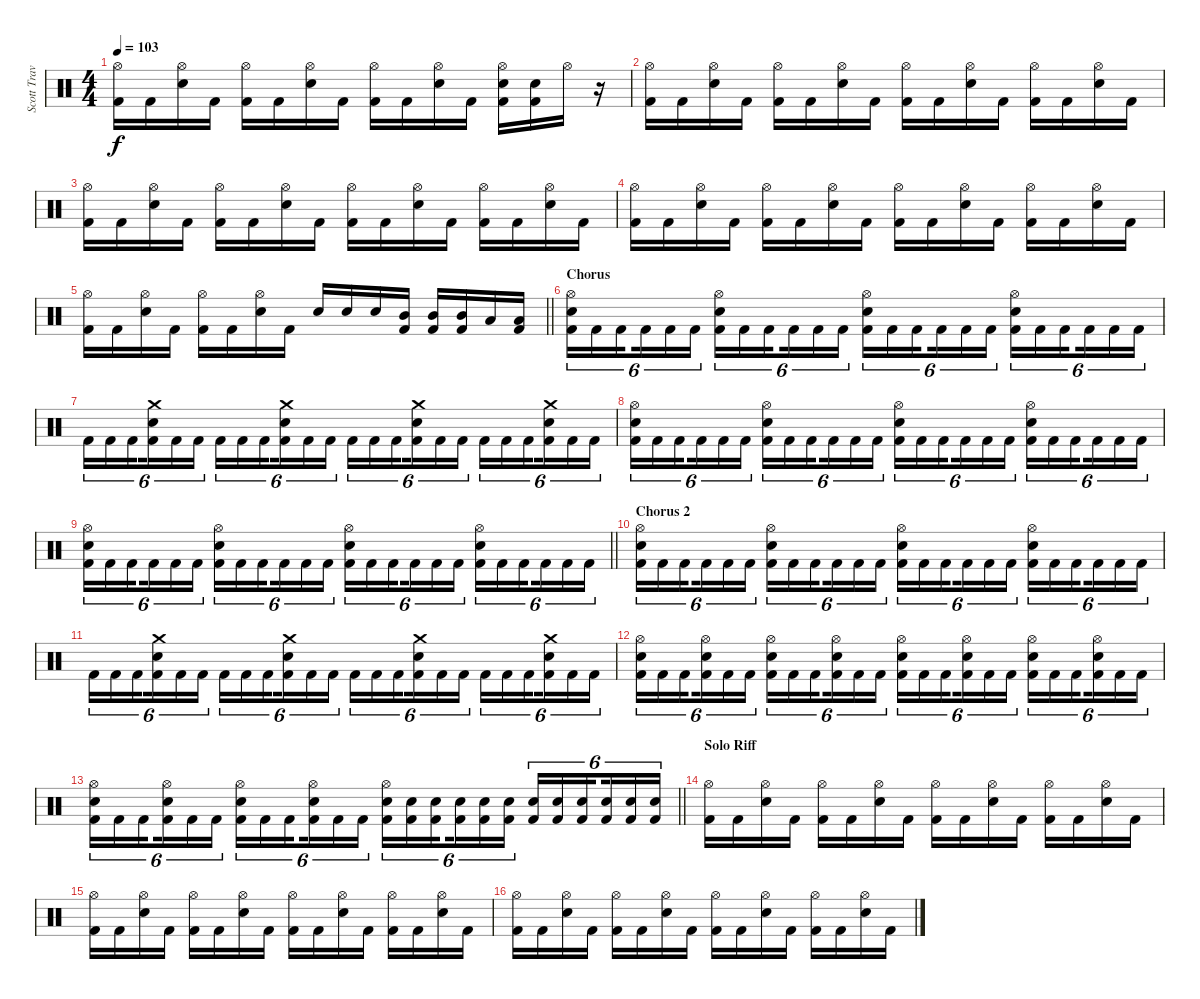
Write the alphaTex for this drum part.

\track ("Scott Travis" "Scott Trav") {instrument percussion}
\staff {score}
\articulation defaults
\ts (4 4)
\tempo 103
\clef neutral
\ks c
("Hi-Hat (open)" "Kick (hit) 2").16{dy f} "Kick (hit) 2".16 ("Hi-Hat (open)" "Snare (hit) 2").16 "Kick (hit) 2".16 ("Hi-Hat (open)" "Kick (hit) 2").16 "Kick (hit) 2".16 ("Hi-Hat (open)" "Snare (hit) 2").16 "Kick (hit) 2".16 ("Hi-Hat (open)" "Kick (hit) 2").16 "Kick (hit) 2".16 ("Hi-Hat (open)" "Snare (hit) 2").16 "Kick (hit) 2".16 ("Hi-Hat (open)" "Snare (hit) 2" "Kick (hit) 2").16 ("Snare (hit) 2" "Kick (hit) 2").16 "Hi-Hat (open)".16 r.16 |
("Hi-Hat (open)" "Kick (hit) 2").16 "Kick (hit) 2".16 ("Hi-Hat (open)" "Snare (hit) 2").16 "Kick (hit) 2".16 ("Hi-Hat (open)" "Kick (hit) 2").16 "Kick (hit) 2".16 ("Hi-Hat (open)" "Snare (hit) 2").16 "Kick (hit) 2".16 ("Hi-Hat (open)" "Kick (hit) 2").16 "Kick (hit) 2".16 ("Hi-Hat (open)" "Snare (hit) 2").16 "Kick (hit) 2".16 ("Hi-Hat (open)" "Kick (hit) 2").16 "Kick (hit) 2".16 ("Hi-Hat (open)" "Snare (hit) 2").16 "Kick (hit) 2".16 |
("Hi-Hat (open)" "Kick (hit) 2").16 "Kick (hit) 2".16 ("Hi-Hat (open)" "Snare (hit) 2").16 "Kick (hit) 2".16 ("Hi-Hat (open)" "Kick (hit) 2").16 "Kick (hit) 2".16 ("Hi-Hat (open)" "Snare (hit) 2").16 "Kick (hit) 2".16 ("Hi-Hat (open)" "Kick (hit) 2").16 "Kick (hit) 2".16 ("Hi-Hat (open)" "Snare (hit) 2").16 "Kick (hit) 2".16 ("Hi-Hat (open)" "Kick (hit) 2").16 "Kick (hit) 2".16 ("Hi-Hat (open)" "Snare (hit) 2").16 "Kick (hit) 2".16 |
("Hi-Hat (open)" "Kick (hit) 2").16 "Kick (hit) 2".16 ("Hi-Hat (open)" "Snare (hit) 2").16 "Kick (hit) 2".16 ("Hi-Hat (open)" "Kick (hit) 2").16 "Kick (hit) 2".16 ("Hi-Hat (open)" "Snare (hit) 2").16 "Kick (hit) 2".16 ("Hi-Hat (open)" "Kick (hit) 2").16 "Kick (hit) 2".16 ("Hi-Hat (open)" "Snare (hit) 2").16 "Kick (hit) 2".16 ("Hi-Hat (open)" "Kick (hit) 2").16 "Kick (hit) 2".16 ("Hi-Hat (open)" "Snare (hit) 2").16 "Kick (hit) 2".16 |
\barLineRight lightlight
("Hi-Hat (open)" "Kick (hit) 2").16 "Kick (hit) 2".16 ("Hi-Hat (open)" "Snare (hit) 2").16 "Kick (hit) 2".16 ("Hi-Hat (open)" "Kick (hit) 2").16 "Kick (hit) 2".16 ("Hi-Hat (open)" "Snare (hit) 2").16 "Kick (hit) 2".16 "Snare (hit) 2".16 "Snare (hit) 2".16 "Snare (hit) 2".16 ("Mid Tom (hit)" "Kick (hit) 2").16 ("Mid Tom (hit)" "Kick (hit) 2").16 ("Mid Tom (hit)" "Kick (hit) 2").16 "Low Tom (hit)".16 ("Low Tom (hit)" "Kick (hit) 2").16 |
\section ("" "Chorus")
("Hi-Hat (open)" "Snare (hit) 2" "Kick (hit) 2").16{tu (6 4)} "Kick (hit) 2".16{tu (6 4)} "Kick (hit) 2".16{tu (6 4) beam splitsecondary} "Kick (hit) 2".16{tu (6 4)} "Kick (hit) 2".16{tu (6 4)} "Kick (hit) 2".16{tu (6 4)} ("Hi-Hat (open)" "Snare (hit) 2" "Kick (hit) 2").16{tu (6 4)} "Kick (hit) 2".16{tu (6 4)} "Kick (hit) 2".16{tu (6 4) beam splitsecondary} "Kick (hit) 2".16{tu (6 4)} "Kick (hit) 2".16{tu (6 4)} "Kick (hit) 2".16{tu (6 4)} ("Hi-Hat (open)" "Snare (hit) 2" "Kick (hit) 2").16{tu (6 4)} "Kick (hit) 2".16{tu (6 4)} "Kick (hit) 2".16{tu (6 4) beam splitsecondary} "Kick (hit) 2".16{tu (6 4)} "Kick (hit) 2".16{tu (6 4)} "Kick (hit) 2".16{tu (6 4)} ("Hi-Hat (open)" "Snare (hit) 2" "Kick (hit) 2").16{tu (6 4)} "Kick (hit) 2".16{tu (6 4)} "Kick (hit) 2".16{tu (6 4) beam splitsecondary} "Kick (hit) 2".16{tu (6 4)} "Kick (hit) 2".16{tu (6 4)} "Kick (hit) 2".16{tu (6 4)} |
"Kick (hit) 2".16{tu (6 4)} "Kick (hit) 2".16{tu (6 4)} "Kick (hit) 2".16{tu (6 4) beam splitsecondary} ("Crash medium (hit)" "Snare (hit) 2" "Kick (hit) 2").16{tu (6 4)} "Kick (hit) 2".16{tu (6 4)} "Kick (hit) 2".16{tu (6 4)} "Kick (hit) 2".16{tu (6 4)} "Kick (hit) 2".16{tu (6 4)} "Kick (hit) 2".16{tu (6 4) beam splitsecondary} ("Crash medium (hit)" "Snare (hit) 2" "Kick (hit) 2").16{tu (6 4)} "Kick (hit) 2".16{tu (6 4)} "Kick (hit) 2".16{tu (6 4)} "Kick (hit) 2".16{tu (6 4)} "Kick (hit) 2".16{tu (6 4)} "Kick (hit) 2".16{tu (6 4) beam splitsecondary} ("Crash medium (hit)" "Snare (hit) 2" "Kick (hit) 2").16{tu (6 4)} "Kick (hit) 2".16{tu (6 4)} "Kick (hit) 2".16{tu (6 4)} "Kick (hit) 2".16{tu (6 4)} "Kick (hit) 2".16{tu (6 4)} "Kick (hit) 2".16{tu (6 4) beam splitsecondary} ("Snare (hit) 2" "Crash medium (hit)" "Kick (hit) 2").16{tu (6 4)} "Kick (hit) 2".16{tu (6 4)} "Kick (hit) 2".16{tu (6 4)} |
("Hi-Hat (open)" "Snare (hit) 2" "Kick (hit) 2").16{tu (6 4)} "Kick (hit) 2".16{tu (6 4)} "Kick (hit) 2".16{tu (6 4) beam splitsecondary} "Kick (hit) 2".16{tu (6 4)} "Kick (hit) 2".16{tu (6 4)} "Kick (hit) 2".16{tu (6 4)} ("Hi-Hat (open)" "Snare (hit) 2" "Kick (hit) 2").16{tu (6 4)} "Kick (hit) 2".16{tu (6 4)} "Kick (hit) 2".16{tu (6 4) beam splitsecondary} "Kick (hit) 2".16{tu (6 4)} "Kick (hit) 2".16{tu (6 4)} "Kick (hit) 2".16{tu (6 4)} ("Hi-Hat (open)" "Snare (hit) 2" "Kick (hit) 2").16{tu (6 4)} "Kick (hit) 2".16{tu (6 4)} "Kick (hit) 2".16{tu (6 4) beam splitsecondary} "Kick (hit) 2".16{tu (6 4)} "Kick (hit) 2".16{tu (6 4)} "Kick (hit) 2".16{tu (6 4)} ("Hi-Hat (open)" "Snare (hit) 2" "Kick (hit) 2").16{tu (6 4)} "Kick (hit) 2".16{tu (6 4)} "Kick (hit) 2".16{tu (6 4) beam splitsecondary} "Kick (hit) 2".16{tu (6 4)} "Kick (hit) 2".16{tu (6 4)} "Kick (hit) 2".16{tu (6 4)} |
\barLineRight lightlight
("Hi-Hat (open)" "Snare (hit) 2" "Kick (hit) 2").16{tu (6 4)} "Kick (hit) 2".16{tu (6 4)} "Kick (hit) 2".16{tu (6 4) beam splitsecondary} "Kick (hit) 2".16{tu (6 4)} "Kick (hit) 2".16{tu (6 4)} "Kick (hit) 2".16{tu (6 4)} ("Hi-Hat (open)" "Snare (hit) 2" "Kick (hit) 2").16{tu (6 4)} "Kick (hit) 2".16{tu (6 4)} "Kick (hit) 2".16{tu (6 4) beam splitsecondary} "Kick (hit) 2".16{tu (6 4)} "Kick (hit) 2".16{tu (6 4)} "Kick (hit) 2".16{tu (6 4)} ("Hi-Hat (open)" "Snare (hit) 2" "Kick (hit) 2").16{tu (6 4)} "Kick (hit) 2".16{tu (6 4)} "Kick (hit) 2".16{tu (6 4) beam splitsecondary} "Kick (hit) 2".16{tu (6 4)} "Kick (hit) 2".16{tu (6 4)} "Kick (hit) 2".16{tu (6 4)} ("Hi-Hat (open)" "Snare (hit) 2" "Kick (hit) 2").16{tu (6 4)} "Kick (hit) 2".16{tu (6 4)} "Kick (hit) 2".16{tu (6 4) beam splitsecondary} "Kick (hit) 2".16{tu (6 4)} "Kick (hit) 2".16{tu (6 4)} "Kick (hit) 2".16{tu (6 4)} |
\section ("" "Chorus 2")
("Hi-Hat (open)" "Snare (hit) 2" "Kick (hit) 2").16{tu (6 4)} "Kick (hit) 2".16{tu (6 4)} "Kick (hit) 2".16{tu (6 4) beam splitsecondary} "Kick (hit) 2".16{tu (6 4)} "Kick (hit) 2".16{tu (6 4)} "Kick (hit) 2".16{tu (6 4)} ("Hi-Hat (open)" "Snare (hit) 2" "Kick (hit) 2").16{tu (6 4)} "Kick (hit) 2".16{tu (6 4)} "Kick (hit) 2".16{tu (6 4) beam splitsecondary} "Kick (hit) 2".16{tu (6 4)} "Kick (hit) 2".16{tu (6 4)} "Kick (hit) 2".16{tu (6 4)} ("Hi-Hat (open)" "Snare (hit) 2" "Kick (hit) 2").16{tu (6 4)} "Kick (hit) 2".16{tu (6 4)} "Kick (hit) 2".16{tu (6 4) beam splitsecondary} "Kick (hit) 2".16{tu (6 4)} "Kick (hit) 2".16{tu (6 4)} "Kick (hit) 2".16{tu (6 4)} ("Hi-Hat (open)" "Snare (hit) 2" "Kick (hit) 2").16{tu (6 4)} "Kick (hit) 2".16{tu (6 4)} "Kick (hit) 2".16{tu (6 4) beam splitsecondary} "Kick (hit) 2".16{tu (6 4)} "Kick (hit) 2".16{tu (6 4)} "Kick (hit) 2".16{tu (6 4)} |
"Kick (hit) 2".16{tu (6 4)} "Kick (hit) 2".16{tu (6 4)} "Kick (hit) 2".16{tu (6 4) beam splitsecondary} ("Crash medium (hit)" "Snare (hit) 2" "Kick (hit) 2").16{tu (6 4)} "Kick (hit) 2".16{tu (6 4)} "Kick (hit) 2".16{tu (6 4)} "Kick (hit) 2".16{tu (6 4)} "Kick (hit) 2".16{tu (6 4)} "Kick (hit) 2".16{tu (6 4) beam splitsecondary} ("Crash medium (hit)" "Snare (hit) 2" "Kick (hit) 2").16{tu (6 4)} "Kick (hit) 2".16{tu (6 4)} "Kick (hit) 2".16{tu (6 4)} "Kick (hit) 2".16{tu (6 4)} "Kick (hit) 2".16{tu (6 4)} "Kick (hit) 2".16{tu (6 4) beam splitsecondary} ("Crash medium (hit)" "Snare (hit) 2" "Kick (hit) 2").16{tu (6 4)} "Kick (hit) 2".16{tu (6 4)} "Kick (hit) 2".16{tu (6 4)} "Kick (hit) 2".16{tu (6 4)} "Kick (hit) 2".16{tu (6 4)} "Kick (hit) 2".16{tu (6 4) beam splitsecondary} ("Snare (hit) 2" "Crash medium (hit)" "Kick (hit) 2").16{tu (6 4)} "Kick (hit) 2".16{tu (6 4)} "Kick (hit) 2".16{tu (6 4)} |
("Hi-Hat (open)" "Snare (hit) 2" "Kick (hit) 2").16{tu (6 4)} "Kick (hit) 2".16{tu (6 4)} "Kick (hit) 2".16{tu (6 4) beam splitsecondary} ("Hi-Hat (open)" "Snare (hit) 2" "Kick (hit) 2").16{tu (6 4)} "Kick (hit) 2".16{tu (6 4)} "Kick (hit) 2".16{tu (6 4)} ("Hi-Hat (open)" "Snare (hit) 2" "Kick (hit) 2").16{tu (6 4)} "Kick (hit) 2".16{tu (6 4)} "Kick (hit) 2".16{tu (6 4) beam splitsecondary} ("Hi-Hat (open)" "Snare (hit) 2" "Kick (hit) 2").16{tu (6 4)} "Kick (hit) 2".16{tu (6 4)} "Kick (hit) 2".16{tu (6 4)} ("Hi-Hat (open)" "Snare (hit) 2" "Kick (hit) 2").16{tu (6 4)} "Kick (hit) 2".16{tu (6 4)} "Kick (hit) 2".16{tu (6 4) beam splitsecondary} ("Hi-Hat (open)" "Snare (hit) 2" "Kick (hit) 2").16{tu (6 4)} "Kick (hit) 2".16{tu (6 4)} "Kick (hit) 2".16{tu (6 4)} ("Hi-Hat (open)" "Snare (hit) 2" "Kick (hit) 2").16{tu (6 4)} "Kick (hit) 2".16{tu (6 4)} "Kick (hit) 2".16{tu (6 4) beam splitsecondary} ("Hi-Hat (open)" "Snare (hit) 2" "Kick (hit) 2").16{tu (6 4)} "Kick (hit) 2".16{tu (6 4)} "Kick (hit) 2".16{tu (6 4)} |
\barLineRight lightlight
("Hi-Hat (open)" "Snare (hit) 2" "Kick (hit) 2").16{tu (6 4)} "Kick (hit) 2".16{tu (6 4)} "Kick (hit) 2".16{tu (6 4) beam splitsecondary} ("Snare (hit) 2" "Hi-Hat (open)" "Kick (hit) 2").16{tu (6 4)} "Kick (hit) 2".16{tu (6 4)} "Kick (hit) 2".16{tu (6 4)} ("Hi-Hat (open)" "Snare (hit) 2" "Kick (hit) 2").16{tu (6 4)} "Kick (hit) 2".16{tu (6 4)} "Kick (hit) 2".16{tu (6 4) beam splitsecondary} ("Hi-Hat (open)" "Snare (hit) 2" "Kick (hit) 2").16{tu (6 4)} "Kick (hit) 2".16{tu (6 4)} "Kick (hit) 2".16{tu (6 4)} ("Hi-Hat (open)" "Snare (hit) 2" "Kick (hit) 2").16{tu (6 4)} ("Snare (hit) 2" "Kick (hit) 2").16{tu (6 4)} ("Snare (hit) 2" "Kick (hit) 2").16{tu (6 4) beam splitsecondary} ("Snare (hit) 2" "Kick (hit) 2").16{tu (6 4)} ("Snare (hit) 2" "Kick (hit) 2").16{tu (6 4)} ("Snare (hit) 2" "Kick (hit) 2").16{tu (6 4)} ("Snare (hit) 2" "Kick (hit) 2").16{tu (6 4)} ("Snare (hit) 2" "Kick (hit) 2").16{tu (6 4)} ("Snare (hit) 2" "Kick (hit) 2").16{tu (6 4) beam splitsecondary} ("Snare (hit) 2" "Kick (hit) 2").16{tu (6 4)} ("Snare (hit) 2" "Kick (hit) 2").16{tu (6 4)} ("Snare (hit) 2" "Kick (hit) 2").16{tu (6 4)} |
\section ("" "Solo Riff")
("Hi-Hat (open)" "Kick (hit) 2").16 "Kick (hit) 2".16 ("Hi-Hat (open)" "Snare (hit) 2").16 "Kick (hit) 2".16 ("Hi-Hat (open)" "Kick (hit) 2").16 "Kick (hit) 2".16 ("Hi-Hat (open)" "Snare (hit) 2").16 "Kick (hit) 2".16 ("Hi-Hat (open)" "Kick (hit) 2").16 "Kick (hit) 2".16 ("Hi-Hat (open)" "Snare (hit) 2").16 "Kick (hit) 2".16 ("Hi-Hat (open)" "Kick (hit) 2").16 "Kick (hit) 2".16 ("Hi-Hat (open)" "Snare (hit) 2").16 "Kick (hit) 2".16 |
("Hi-Hat (open)" "Kick (hit) 2").16 "Kick (hit) 2".16 ("Hi-Hat (open)" "Snare (hit) 2").16 "Kick (hit) 2".16 ("Hi-Hat (open)" "Kick (hit) 2").16 "Kick (hit) 2".16 ("Hi-Hat (open)" "Snare (hit) 2").16 "Kick (hit) 2".16 ("Hi-Hat (open)" "Kick (hit) 2").16 "Kick (hit) 2".16 ("Hi-Hat (open)" "Snare (hit) 2").16 "Kick (hit) 2".16 ("Hi-Hat (open)" "Kick (hit) 2").16 "Kick (hit) 2".16 ("Hi-Hat (open)" "Snare (hit) 2").16 "Kick (hit) 2".16 |
("Hi-Hat (open)" "Kick (hit) 2").16 "Kick (hit) 2".16 ("Hi-Hat (open)" "Snare (hit) 2").16 "Kick (hit) 2".16 ("Hi-Hat (open)" "Kick (hit) 2").16 "Kick (hit) 2".16 ("Hi-Hat (open)" "Snare (hit) 2").16 "Kick (hit) 2".16 ("Hi-Hat (open)" "Kick (hit) 2").16 "Kick (hit) 2".16 ("Hi-Hat (open)" "Snare (hit) 2").16 "Kick (hit) 2".16 ("Hi-Hat (open)" "Kick (hit) 2").16 "Kick (hit) 2".16 ("Hi-Hat (open)" "Snare (hit) 2").16 "Kick (hit) 2".16
